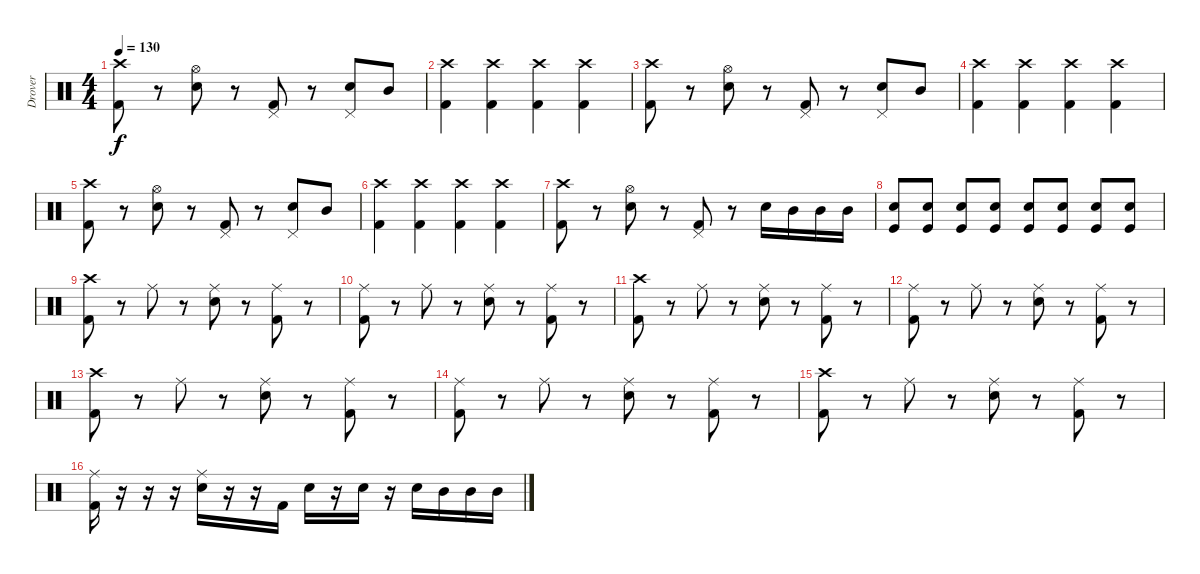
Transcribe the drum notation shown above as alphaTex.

\track ("Drover" "Drover") {instrument percussion}
\staff {score}
\articulation defaults
\ts (4 4)
\tempo 130
\clef neutral
\ks c
("Crash high (hit)" "Kick (hit) 2").8{dy f} r.8 ("Electric Snare (hit)" "Hi-Hat (open)").8 r.8 ("Kick (hit) 2" "Pedal Hi-Hat (hit)").8 r.8 ("Electric Snare (hit)" "Pedal Hi-Hat (hit)").8 "Mid Tom (hit)".8 |
("Kick (hit) 2" "Crash high (hit)").4 ("Kick (hit) 2" "Crash high (hit)").4 ("Kick (hit) 2" "Crash high (hit)").4 ("Kick (hit) 2" "Crash high (hit)").4 |
("Crash high (hit)" "Kick (hit) 2").8 r.8 ("Electric Snare (hit)" "Hi-Hat (open)").8 r.8 ("Kick (hit) 2" "Pedal Hi-Hat (hit)").8 r.8 ("Electric Snare (hit)" "Pedal Hi-Hat (hit)").8 "Mid Tom (hit)".8 |
("Kick (hit) 2" "Crash high (hit)").4 ("Kick (hit) 2" "Crash high (hit)").4 ("Kick (hit) 2" "Crash high (hit)").4 ("Kick (hit) 2" "Crash high (hit)").4 |
("Crash high (hit)" "Kick (hit) 2").8 r.8 ("Electric Snare (hit)" "Hi-Hat (open)").8 r.8 ("Kick (hit) 2" "Pedal Hi-Hat (hit)").8 r.8 ("Electric Snare (hit)" "Pedal Hi-Hat (hit)").8 "Mid Tom (hit)".8 |
("Kick (hit) 2" "Crash high (hit)").4 ("Kick (hit) 2" "Crash high (hit)").4 ("Kick (hit) 2" "Crash high (hit)").4 ("Kick (hit) 2" "Crash high (hit)").4 |
("Crash high (hit)" "Kick (hit) 2").8 r.8 ("Electric Snare (hit)" "Hi-Hat (open)").8 r.8 ("Kick (hit) 2" "Pedal Hi-Hat (hit)").8 r.8 "Snare (hit) 2".16 "Mid Tom (hit)".16 "Mid Tom (hit)".16 "Mid Tom (hit)".16 |
("Kick (hit)" "Snare (hit) 2").8 ("Kick (hit)" "Snare (hit) 2").8 ("Kick (hit)" "Snare (hit) 2").8 ("Kick (hit)" "Snare (hit) 2").8 ("Kick (hit)" "Snare (hit) 2").8 ("Kick (hit)" "Snare (hit) 2").8 ("Kick (hit)" "Snare (hit) 2").8 ("Kick (hit)" "Snare (hit) 2").8 |
("Kick (hit) 2" "Crash high (hit)").8 r.8 "Ride (middle)".8 r.8 ("Electric Snare (hit)" "Ride (middle)").8 r.8 ("Ride (middle)" "Kick (hit) 2").8 r.8 |
("Kick (hit) 2" "Ride (middle)").8 r.8 "Ride (middle)".8 r.8 ("Electric Snare (hit)" "Ride (middle)").8 r.8 ("Ride (middle)" "Kick (hit) 2").8 r.8 |
("Kick (hit) 2" "Crash high (hit)").8 r.8 "Ride (middle)".8 r.8 ("Electric Snare (hit)" "Ride (middle)").8 r.8 ("Ride (middle)" "Kick (hit) 2").8 r.8 |
("Kick (hit) 2" "Ride (middle)").8 r.8 "Ride (middle)".8 r.8 ("Electric Snare (hit)" "Ride (middle)").8 r.8 ("Ride (middle)" "Kick (hit) 2").8 r.8 |
("Kick (hit) 2" "Crash high (hit)").8 r.8 "Ride (middle)".8 r.8 ("Electric Snare (hit)" "Ride (middle)").8 r.8 ("Ride (middle)" "Kick (hit) 2").8 r.8 |
("Kick (hit) 2" "Ride (middle)").8 r.8 "Ride (middle)".8 r.8 ("Electric Snare (hit)" "Ride (middle)").8 r.8 ("Ride (middle)" "Kick (hit) 2").8 r.8 |
("Kick (hit) 2" "Crash high (hit)").8 r.8 "Ride (middle)".8 r.8 ("Electric Snare (hit)" "Ride (middle)").8 r.8 ("Ride (middle)" "Kick (hit) 2").8 r.8 |
("Ride (middle)" "Kick (hit) 2").16 r.16 r.16 r.16 ("Ride (middle)" "Electric Snare (hit)").16 r.16 r.16 "Kick (hit) 2".16 "Electric Snare (hit)".16 r.16 "Snare (hit) 2".16 r.16 "Snare (hit) 2".16 "Mid Tom (hit)".16 "Mid Tom (hit)".16 "Mid Tom (hit)".16
